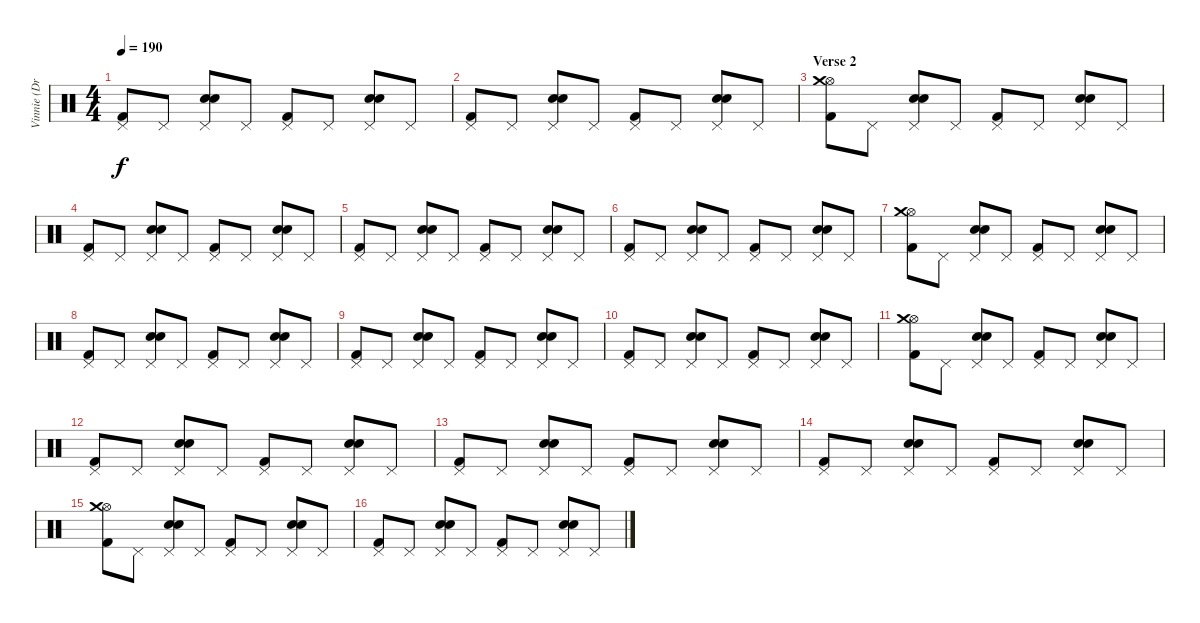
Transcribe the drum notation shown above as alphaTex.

\track ("Vinnie (Drums)" "Vinnie (Dr") {instrument percussion}
\staff {score}
\articulation defaults
\ts (4 4)
\tempo 190
\clef neutral
\ks c
("Kick (hit) 2" "Pedal Hi-Hat (hit)").8{dy f} "Pedal Hi-Hat (hit)".8 ("Snare (hit) 2" "Electric Snare (hit)" "Pedal Hi-Hat (hit)").8 "Pedal Hi-Hat (hit)".8 ("Kick (hit) 2" "Pedal Hi-Hat (hit)").8 "Pedal Hi-Hat (hit)".8 ("Snare (hit) 2" "Electric Snare (hit)" "Pedal Hi-Hat (hit)").8 "Pedal Hi-Hat (hit)".8 |
("Kick (hit) 2" "Pedal Hi-Hat (hit)").8 "Pedal Hi-Hat (hit)".8 ("Snare (hit) 2" "Electric Snare (hit)" "Pedal Hi-Hat (hit)").8 "Pedal Hi-Hat (hit)".8 ("Kick (hit) 2" "Pedal Hi-Hat (hit)").8 "Pedal Hi-Hat (hit)".8 ("Snare (hit) 2" "Electric Snare (hit)" "Pedal Hi-Hat (hit)").8 "Pedal Hi-Hat (hit)".8 |
\section ("" "Verse 2")
("Kick (hit) 2" "Hi-Hat (open)" "Crash medium (hit)").8 "Pedal Hi-Hat (hit)".8 ("Snare (hit) 2" "Electric Snare (hit)" "Pedal Hi-Hat (hit)").8 "Pedal Hi-Hat (hit)".8 ("Kick (hit) 2" "Pedal Hi-Hat (hit)").8 "Pedal Hi-Hat (hit)".8 ("Snare (hit) 2" "Electric Snare (hit)" "Pedal Hi-Hat (hit)").8 "Pedal Hi-Hat (hit)".8 |
("Kick (hit) 2" "Pedal Hi-Hat (hit)").8 "Pedal Hi-Hat (hit)".8 ("Snare (hit) 2" "Electric Snare (hit)" "Pedal Hi-Hat (hit)").8 "Pedal Hi-Hat (hit)".8 ("Kick (hit) 2" "Pedal Hi-Hat (hit)").8 "Pedal Hi-Hat (hit)".8 ("Snare (hit) 2" "Electric Snare (hit)" "Pedal Hi-Hat (hit)").8 "Pedal Hi-Hat (hit)".8 |
("Kick (hit) 2" "Pedal Hi-Hat (hit)").8 "Pedal Hi-Hat (hit)".8 ("Snare (hit) 2" "Electric Snare (hit)" "Pedal Hi-Hat (hit)").8 "Pedal Hi-Hat (hit)".8 ("Kick (hit) 2" "Pedal Hi-Hat (hit)").8 "Pedal Hi-Hat (hit)".8 ("Snare (hit) 2" "Electric Snare (hit)" "Pedal Hi-Hat (hit)").8 "Pedal Hi-Hat (hit)".8 |
("Kick (hit) 2" "Pedal Hi-Hat (hit)").8 "Pedal Hi-Hat (hit)".8 ("Snare (hit) 2" "Electric Snare (hit)" "Pedal Hi-Hat (hit)").8 "Pedal Hi-Hat (hit)".8 ("Kick (hit) 2" "Pedal Hi-Hat (hit)").8 "Pedal Hi-Hat (hit)".8 ("Snare (hit) 2" "Electric Snare (hit)" "Pedal Hi-Hat (hit)").8 "Pedal Hi-Hat (hit)".8 |
("Kick (hit) 2" "Hi-Hat (open)" "Crash medium (hit)").8 "Pedal Hi-Hat (hit)".8 ("Snare (hit) 2" "Electric Snare (hit)" "Pedal Hi-Hat (hit)").8 "Pedal Hi-Hat (hit)".8 ("Kick (hit) 2" "Pedal Hi-Hat (hit)").8 "Pedal Hi-Hat (hit)".8 ("Snare (hit) 2" "Electric Snare (hit)" "Pedal Hi-Hat (hit)").8 "Pedal Hi-Hat (hit)".8 |
("Kick (hit) 2" "Pedal Hi-Hat (hit)").8 "Pedal Hi-Hat (hit)".8 ("Snare (hit) 2" "Electric Snare (hit)" "Pedal Hi-Hat (hit)").8 "Pedal Hi-Hat (hit)".8 ("Kick (hit) 2" "Pedal Hi-Hat (hit)").8 "Pedal Hi-Hat (hit)".8 ("Snare (hit) 2" "Electric Snare (hit)" "Pedal Hi-Hat (hit)").8 "Pedal Hi-Hat (hit)".8 |
("Kick (hit) 2" "Pedal Hi-Hat (hit)").8 "Pedal Hi-Hat (hit)".8 ("Snare (hit) 2" "Electric Snare (hit)" "Pedal Hi-Hat (hit)").8 "Pedal Hi-Hat (hit)".8 ("Kick (hit) 2" "Pedal Hi-Hat (hit)").8 "Pedal Hi-Hat (hit)".8 ("Snare (hit) 2" "Electric Snare (hit)" "Pedal Hi-Hat (hit)").8 "Pedal Hi-Hat (hit)".8 |
("Kick (hit) 2" "Pedal Hi-Hat (hit)").8 "Pedal Hi-Hat (hit)".8 ("Snare (hit) 2" "Electric Snare (hit)" "Pedal Hi-Hat (hit)").8 "Pedal Hi-Hat (hit)".8 ("Kick (hit) 2" "Pedal Hi-Hat (hit)").8 "Pedal Hi-Hat (hit)".8 ("Snare (hit) 2" "Electric Snare (hit)" "Pedal Hi-Hat (hit)").8 "Pedal Hi-Hat (hit)".8 |
("Kick (hit) 2" "Hi-Hat (open)" "Crash medium (hit)").8 "Pedal Hi-Hat (hit)".8 ("Snare (hit) 2" "Electric Snare (hit)" "Pedal Hi-Hat (hit)").8 "Pedal Hi-Hat (hit)".8 ("Kick (hit) 2" "Pedal Hi-Hat (hit)").8 "Pedal Hi-Hat (hit)".8 ("Snare (hit) 2" "Electric Snare (hit)" "Pedal Hi-Hat (hit)").8 "Pedal Hi-Hat (hit)".8 |
("Kick (hit) 2" "Pedal Hi-Hat (hit)").8 "Pedal Hi-Hat (hit)".8 ("Snare (hit) 2" "Electric Snare (hit)" "Pedal Hi-Hat (hit)").8 "Pedal Hi-Hat (hit)".8 ("Kick (hit) 2" "Pedal Hi-Hat (hit)").8 "Pedal Hi-Hat (hit)".8 ("Snare (hit) 2" "Electric Snare (hit)" "Pedal Hi-Hat (hit)").8 "Pedal Hi-Hat (hit)".8 |
("Kick (hit) 2" "Pedal Hi-Hat (hit)").8 "Pedal Hi-Hat (hit)".8 ("Snare (hit) 2" "Electric Snare (hit)" "Pedal Hi-Hat (hit)").8 "Pedal Hi-Hat (hit)".8 ("Kick (hit) 2" "Pedal Hi-Hat (hit)").8 "Pedal Hi-Hat (hit)".8 ("Snare (hit) 2" "Electric Snare (hit)" "Pedal Hi-Hat (hit)").8 "Pedal Hi-Hat (hit)".8 |
("Kick (hit) 2" "Pedal Hi-Hat (hit)").8 "Pedal Hi-Hat (hit)".8 ("Snare (hit) 2" "Electric Snare (hit)" "Pedal Hi-Hat (hit)").8 "Pedal Hi-Hat (hit)".8 ("Kick (hit) 2" "Pedal Hi-Hat (hit)").8 "Pedal Hi-Hat (hit)".8 ("Snare (hit) 2" "Electric Snare (hit)" "Pedal Hi-Hat (hit)").8 "Pedal Hi-Hat (hit)".8 |
("Kick (hit) 2" "Hi-Hat (open)" "Crash medium (hit)").8 "Pedal Hi-Hat (hit)".8 ("Snare (hit) 2" "Electric Snare (hit)" "Pedal Hi-Hat (hit)").8 "Pedal Hi-Hat (hit)".8 ("Kick (hit) 2" "Pedal Hi-Hat (hit)").8 "Pedal Hi-Hat (hit)".8 ("Snare (hit) 2" "Electric Snare (hit)" "Pedal Hi-Hat (hit)").8 "Pedal Hi-Hat (hit)".8 |
("Kick (hit) 2" "Pedal Hi-Hat (hit)").8 "Pedal Hi-Hat (hit)".8 ("Snare (hit) 2" "Electric Snare (hit)" "Pedal Hi-Hat (hit)").8 "Pedal Hi-Hat (hit)".8 ("Kick (hit) 2" "Pedal Hi-Hat (hit)").8 "Pedal Hi-Hat (hit)".8 ("Snare (hit) 2" "Electric Snare (hit)" "Pedal Hi-Hat (hit)").8 "Pedal Hi-Hat (hit)".8
